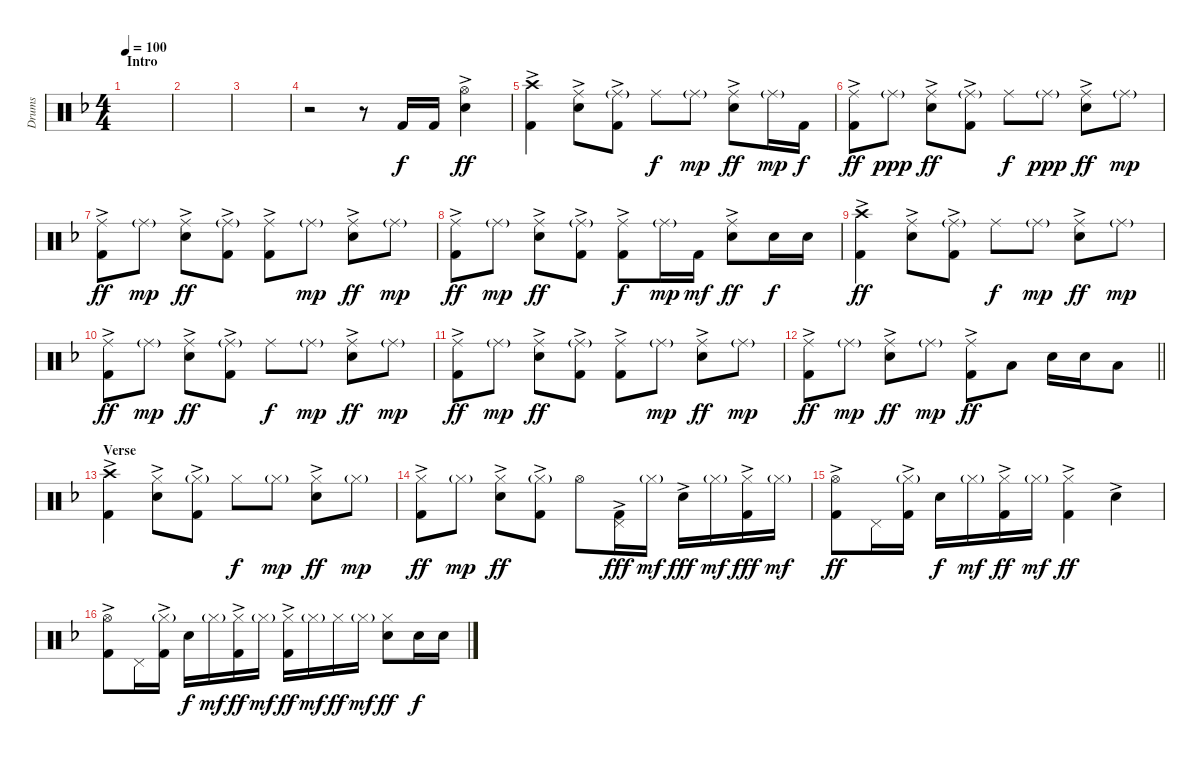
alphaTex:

\track ("Drums" "Drums") {instrument percussion}
\staff {score}
\articulation defaults
\ts (4 4)
\section ("" "Intro")
\tempo 100
\clef neutral
\ks f
|
|
|
r.2 r.8 "Kick (hit) 2".16 "Kick (hit) 2".16 ("Hi-Hat (open)" "Snare (hit) 2"{ac}).4{dy ff} |
("Crash high (hit)" "Kick (hit) 2"{ac}).4 ("Ride (middle)" "Snare (hit) 2"{ac}).8 ("Ride (middle)"{g} "Kick (hit) 2"{ac}).8 "Ride (middle)".8{dy f} "Ride (middle)"{g}.8{dy mp} ("Ride (middle)" "Snare (hit) 2"{ac}).8{dy ff} "Ride (middle)"{g}.16{dy mp} "Kick (hit) 2".16{dy f} |
("Ride (middle)" "Kick (hit) 2"{ac}).8{dy ff} "Ride (middle)"{g}.8{dy ppp} ("Ride (middle)" "Snare (hit) 2"{ac}).8{dy ff} ("Ride (middle)"{g} "Kick (hit) 2"{ac}).8 "Ride (middle)".8{dy f} "Ride (middle)"{g}.8{dy ppp} ("Ride (middle)" "Snare (hit) 2"{ac}).8{dy ff} "Ride (middle)"{g}.8{dy mp} |
("Ride (middle)" "Kick (hit) 2"{ac}).8{dy ff} "Ride (middle)"{g}.8{dy mp} ("Ride (middle)" "Snare (hit) 2"{ac}).8{dy ff} ("Ride (middle)"{g} "Kick (hit) 2"{ac}).8 ("Ride (middle)" "Kick (hit) 2"{ac}).8 "Ride (middle)"{g}.8{dy mp} ("Ride (middle)" "Snare (hit) 2"{ac}).8{dy ff} "Ride (middle)"{g}.8{dy mp} |
("Ride (middle)" "Kick (hit) 2"{ac}).8{dy ff} "Ride (middle)"{g}.8{dy mp} ("Ride (middle)" "Snare (hit) 2"{ac}).8{dy ff} ("Ride (middle)"{g} "Kick (hit) 2"{ac}).8 ("Ride (middle)" "Kick (hit) 2"{ac}).8{dy f} "Ride (middle)"{g}.16{dy mp} "Kick (hit) 2".16{dy mf} ("Ride (middle)" "Snare (hit) 2"{ac}).8{dy ff} "Snare (hit) 2".16{dy f} "Snare (hit) 2".16 |
("Crash high (hit)" "Kick (hit) 2"{ac}).4{dy ff} ("Ride (middle)" "Snare (hit) 2"{ac}).8 ("Ride (middle)"{g} "Kick (hit) 2"{ac}).8 "Ride (middle)".8{dy f} "Ride (middle)"{g}.8{dy mp} ("Ride (middle)" "Snare (hit) 2"{ac}).8{dy ff} "Ride (middle)"{g}.8{dy mp} |
("Ride (middle)" "Kick (hit) 2"{ac}).8{dy ff} "Ride (middle)"{g}.8{dy mp} ("Ride (middle)" "Snare (hit) 2"{ac}).8{dy ff} ("Ride (middle)"{g} "Kick (hit) 2"{ac}).8 "Ride (middle)".8{dy f} "Ride (middle)"{g}.8{dy mp} ("Ride (middle)" "Snare (hit) 2"{ac}).8{dy ff} "Ride (middle)"{g}.8{dy mp} |
("Ride (middle)" "Kick (hit) 2"{ac}).8{dy ff} "Ride (middle)"{g}.8{dy mp} ("Ride (middle)" "Snare (hit) 2"{ac}).8{dy ff} ("Ride (middle)"{g} "Kick (hit) 2"{ac}).8 ("Ride (middle)" "Kick (hit) 2"{ac}).8 "Ride (middle)"{g}.8{dy mp} ("Ride (middle)" "Snare (hit) 2"{ac}).8{dy ff} "Ride (middle)"{g}.8{dy mp} |
\barLineRight lightlight
("Ride (middle)" "Kick (hit) 2"{ac}).8{dy ff} "Ride (middle)"{g}.8{dy mp} ("Ride (middle)" "Snare (hit) 2"{ac}).8{dy ff} "Ride (middle)"{g}.8{dy mp} ("Ride (middle)" "Kick (hit) 2"{ac}).8{dy ff} "Low Tom (hit)".8 "Snare (hit) 2".16 "Snare (hit) 2".16 "Low Tom (hit)".8 |
\section ("" "Verse")
("Crash high (hit)" "Kick (hit) 2"{ac}).4 ("Hi-Hat (closed)" "Snare (hit) 2"{ac}).8 ("Hi-Hat (closed)"{g} "Kick (hit) 2"{ac}).8 "Hi-Hat (closed)".8{dy f} "Hi-Hat (closed)"{g}.8{dy mp} ("Hi-Hat (closed)" "Snare (hit) 2"{ac}).8{dy ff} "Hi-Hat (closed)"{g}.8{dy mp} |
("Hi-Hat (closed)" "Kick (hit) 2"{ac}).8{dy ff} "Hi-Hat (closed)"{g}.8{dy mp} ("Hi-Hat (closed)" "Snare (hit) 2"{ac}).8{dy ff} ("Hi-Hat (closed)"{g} "Kick (hit) 2"{ac}).8 "Hi-Hat (open)".8 ("Pedal Hi-Hat (hit)" "Kick (hit) 2"{ac}).16{dy fff} "Hi-Hat (closed)"{g}.16{dy mf} "Snare (hit) 2"{ac}.16{dy fff} "Hi-Hat (closed)"{g}.16{dy mf} ("Hi-Hat (closed)" "Kick (hit) 2"{ac}).16{dy fff} "Hi-Hat (closed)"{g}.16{dy mf} |
("Hi-Hat (open)" "Kick (hit) 2"{ac}).8{dy ff} "Pedal Hi-Hat (hit)".16 ("Hi-Hat (closed)"{g} "Kick (hit) 2"{ac}).16 "Snare (hit) 2".16{dy f} "Hi-Hat (closed)"{g}.16{dy mf} ("Hi-Hat (closed)" "Kick (hit) 2"{ac}).16{dy ff} "Hi-Hat (closed)"{g}.16{dy mf} ("Hi-Hat (closed)" "Kick (hit) 2"{ac}).4{dy ff} "Snare (hit) 2"{ac}.4 |
("Hi-Hat (open)" "Kick (hit) 2"{ac}).8 "Pedal Hi-Hat (hit)".16 ("Hi-Hat (closed)"{g} "Kick (hit) 2"{ac}).16 "Snare (hit) 2".16{dy f} "Hi-Hat (closed)"{g}.16{dy mf} ("Hi-Hat (closed)" "Kick (hit) 2"{ac}).16{dy ff} "Hi-Hat (closed)"{g}.16{dy mf} ("Hi-Hat (closed)" "Kick (hit) 2"{ac}).16{dy ff} "Hi-Hat (closed)"{g}.16{dy mf} "Hi-Hat (closed)".16{dy ff} "Hi-Hat (closed)"{g}.16{dy mf} ("Hi-Hat (closed)" "Snare (hit) 2").8{dy ff} "Snare (hit) 2".16{dy f} "Snare (hit) 2".16
